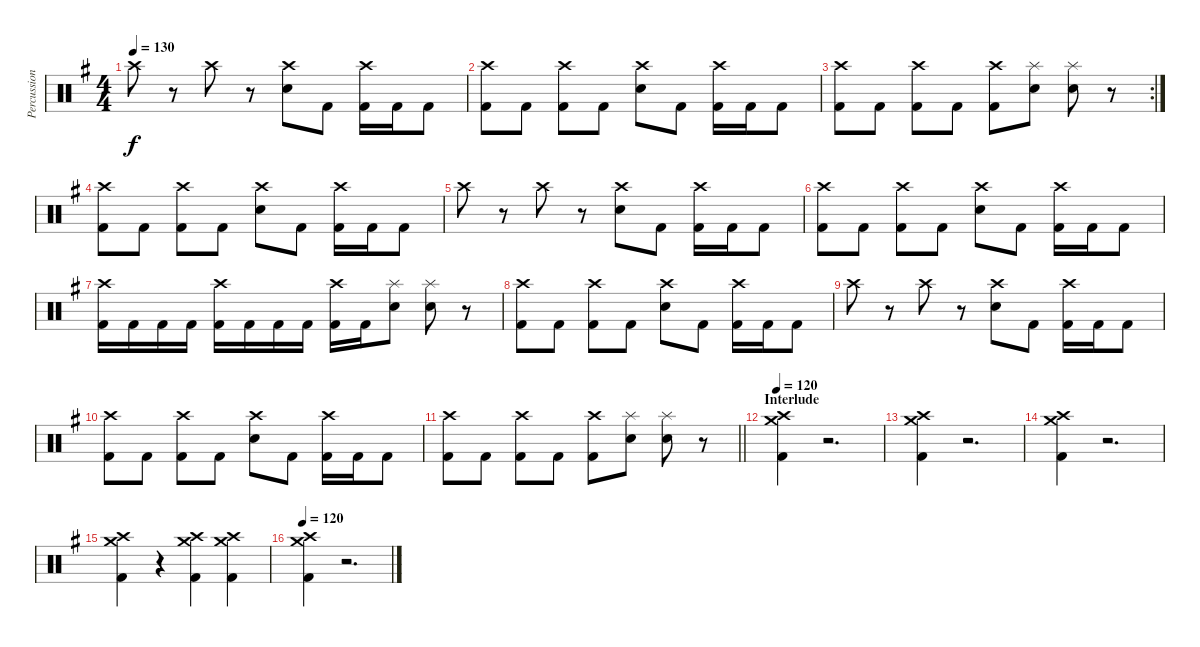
\track ("Percussion" "Percussion") {instrument percussion}
\staff {score}
\articulation defaults
\ts (4 4)
\tempo 130
\clef neutral
\ks g "Crash high (hit)".8{dy f}
r.8 "Crash high (hit)".8 r.8 ("Crash high (hit)" "Snare (hit) 2").8 "Kick (hit) 2".8 ("Crash high (hit)" "Kick (hit) 2").16 "Kick (hit) 2".16 "Kick (hit) 2".8 |
("Crash high (hit)" "Kick (hit) 2").8 "Kick (hit) 2".8 ("Crash high (hit)" "Kick (hit) 2").8 "Kick (hit) 2".8 ("Crash high (hit)" "Snare (hit) 2").8 "Kick (hit) 2".8 ("Crash high (hit)" "Kick (hit) 2").16 "Kick (hit) 2".16 "Kick (hit) 2".8 |
\rc 2
("Crash high (hit)" "Kick (hit) 2").8 "Kick (hit) 2".8 ("Crash high (hit)" "Kick (hit) 2").8 "Kick (hit) 2".8 ("Crash high (hit)" "Kick (hit) 2").8 ("Splash (hit)" "Snare (hit) 2").8 ("Splash (hit)" "Snare (hit) 2").8 r.8 |
("Crash high (hit)" "Kick (hit) 2").8 "Kick (hit) 2".8 ("Crash high (hit)" "Kick (hit) 2").8 "Kick (hit) 2".8 ("Crash high (hit)" "Snare (hit) 2").8 "Kick (hit) 2".8 ("Crash high (hit)" "Kick (hit) 2").16 "Kick (hit) 2".16 "Kick (hit) 2".8 |
"Crash high (hit)".8 r.8 "Crash high (hit)".8 r.8 ("Crash high (hit)" "Snare (hit) 2").8 "Kick (hit) 2".8 ("Crash high (hit)" "Kick (hit) 2").16 "Kick (hit) 2".16 "Kick (hit) 2".8 |
("Crash high (hit)" "Kick (hit) 2").8 "Kick (hit) 2".8 ("Crash high (hit)" "Kick (hit) 2").8 "Kick (hit) 2".8 ("Crash high (hit)" "Snare (hit) 2").8 "Kick (hit) 2".8 ("Crash high (hit)" "Kick (hit) 2").16 "Kick (hit) 2".16 "Kick (hit) 2".8 |
("Crash high (hit)" "Kick (hit) 2").16 "Kick (hit) 2".16 "Kick (hit) 2".16 "Kick (hit) 2".16 ("Crash high (hit)" "Kick (hit) 2").16 "Kick (hit) 2".16 "Kick (hit) 2".16 "Kick (hit) 2".16 ("Crash high (hit)" "Kick (hit) 2").16 "Kick (hit) 2".16 ("Splash (hit)" "Snare (hit) 2").8 ("Splash (hit)" "Snare (hit) 2").8 r.8 |
("Crash high (hit)" "Kick (hit) 2").8 "Kick (hit) 2".8 ("Crash high (hit)" "Kick (hit) 2").8 "Kick (hit) 2".8 ("Crash high (hit)" "Snare (hit) 2").8 "Kick (hit) 2".8 ("Crash high (hit)" "Kick (hit) 2").16 "Kick (hit) 2".16 "Kick (hit) 2".8 |
"Crash high (hit)".8 r.8 "Crash high (hit)".8 r.8 ("Crash high (hit)" "Snare (hit) 2").8 "Kick (hit) 2".8 ("Crash high (hit)" "Kick (hit) 2").16 "Kick (hit) 2".16 "Kick (hit) 2".8 |
("Crash high (hit)" "Kick (hit) 2").8 "Kick (hit) 2".8 ("Crash high (hit)" "Kick (hit) 2").8 "Kick (hit) 2".8 ("Crash high (hit)" "Snare (hit) 2").8 "Kick (hit) 2".8 ("Crash high (hit)" "Kick (hit) 2").16 "Kick (hit) 2".16 "Kick (hit) 2".8 |
\barLineRight lightlight
("Crash high (hit)" "Kick (hit) 2").8 "Kick (hit) 2".8 ("Crash high (hit)" "Kick (hit) 2").8 "Kick (hit) 2".8 ("Crash high (hit)" "Kick (hit) 2").8 ("Splash (hit)" "Snare (hit) 2").8 ("Splash (hit)" "Snare (hit) 2").8 r.8 |
\section ("" "Interlude")
\tempo 120
("Crash high (hit)" "Crash medium (hit)" "Kick (hit) 2").4 r.2{d} |
("Crash high (hit)" "Crash medium (hit)" "Kick (hit) 2").4 r.2{d} |
("Crash high (hit)" "Crash medium (hit)" "Kick (hit) 2").4 r.2{d} |
("Crash high (hit)" "Crash medium (hit)" "Kick (hit) 2").4 r.4 ("Crash high (hit)" "Crash medium (hit)" "Kick (hit) 2").4 ("Crash high (hit)" "Crash medium (hit)" "Kick (hit) 2").4 |
\tempo 120
("Crash high (hit)" "Crash medium (hit)" "Kick (hit) 2").4 r.2{d}
